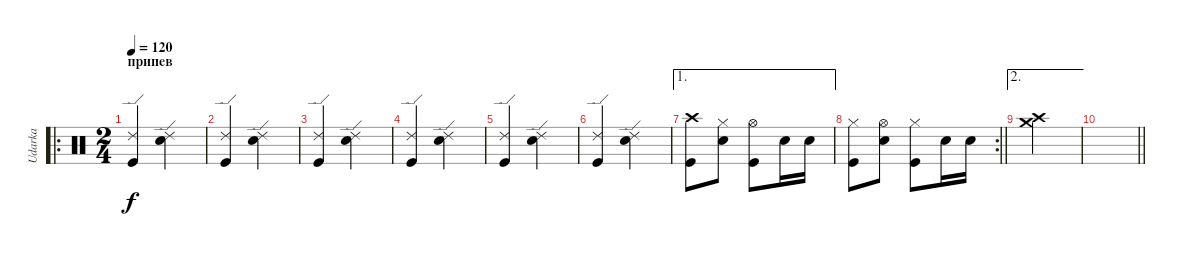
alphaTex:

\track ("Udarka" "Udarka") {solo instrument percussion}
\staff {score}
\articulation defaults
\ro
\ts (2 4)
\section ("" "припев")
\tempo 120
\clef neutral
\ks c
("Kick (hit)" "Ride (edge) 2").4{dy f} ("Snare (hit) 2" "Ride (edge) 2").4 |
("Kick (hit)" "Ride (edge) 2").4 ("Snare (hit) 2" "Ride (edge) 2").4 |
("Kick (hit)" "Ride (edge) 2").4 ("Snare (hit) 2" "Ride (edge) 2").4 |
("Kick (hit)" "Ride (edge) 2").4 ("Snare (hit) 2" "Ride (edge) 2").4 |
("Kick (hit)" "Ride (edge) 2").4 ("Snare (hit) 2" "Ride (edge) 2").4 |
("Kick (hit)" "Ride (edge) 2").4 ("Snare (hit) 2" "Ride (edge) 2").4 |
\ae 1
("Kick (hit)" "Crash high (hit)").8 ("Snare (hit) 2" "Hi-Hat (closed)").8 ("Kick (hit)" "Hi-Hat (open)").8 "Snare (hit) 2".16 "Snare (hit) 2".16 |
\rc 2
\barLineRight lightlight
("Kick (hit)" "Hi-Hat (closed)").8 ("Snare (hit) 2" "Hi-Hat (open)").8 ("Kick (hit)" "Hi-Hat (closed)").8 "Snare (hit) 2".16 "Snare (hit) 2".16 |
\ae 2
("Crash medium (hit)" "Crash high (hit)").2 |
\barLineRight lightlight
